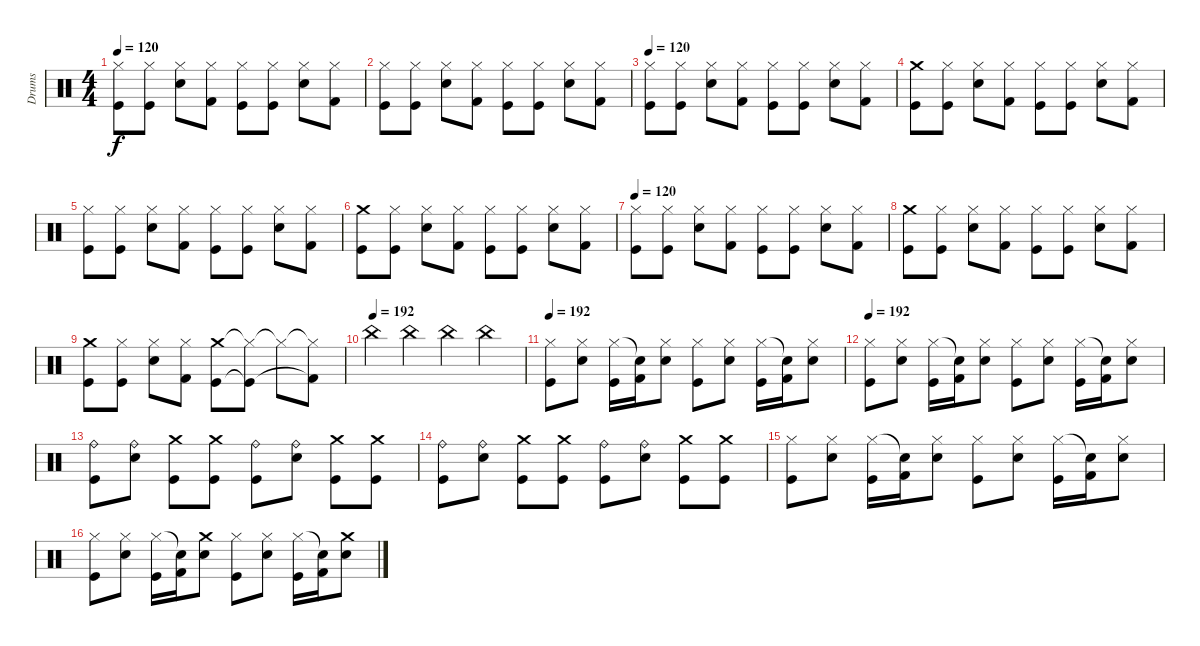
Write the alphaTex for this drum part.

\track ("Drums" "Drums") {instrument percussion}
\staff {score}
\articulation defaults
\ts (4 4)
\tempo 120
\clef neutral
\ks c
("Hi-Hat (closed)" "Kick (hit)").8{dy f} ("Hi-Hat (closed)" "Kick (hit)").8 ("Hi-Hat (closed)" "Electric Snare (hit)").8 ("Hi-Hat (closed)" "Kick (hit) 2").8 ("Hi-Hat (closed)" "Kick (hit)").8 ("Hi-Hat (closed)" "Kick (hit)").8 ("Hi-Hat (closed)" "Electric Snare (hit)").8 ("Hi-Hat (closed)" "Kick (hit) 2").8 |
("Hi-Hat (closed)" "Kick (hit)").8 ("Hi-Hat (closed)" "Kick (hit)").8 ("Hi-Hat (closed)" "Electric Snare (hit)").8 ("Hi-Hat (closed)" "Kick (hit) 2").8 ("Hi-Hat (closed)" "Kick (hit)").8 ("Hi-Hat (closed)" "Kick (hit)").8 ("Hi-Hat (closed)" "Electric Snare (hit)").8 ("Hi-Hat (closed)" "Kick (hit) 2").8 |
\tempo 120
("Hi-Hat (closed)" "Kick (hit)").8 ("Hi-Hat (closed)" "Kick (hit)").8 ("Hi-Hat (closed)" "Electric Snare (hit)").8 ("Hi-Hat (closed)" "Kick (hit) 2").8 ("Hi-Hat (closed)" "Kick (hit)").8 ("Hi-Hat (closed)" "Kick (hit)").8 ("Hi-Hat (closed)" "Electric Snare (hit)").8 ("Hi-Hat (closed)" "Kick (hit) 2").8 |
("Crash medium (hit)" "Kick (hit)").8 ("Hi-Hat (closed)" "Kick (hit)").8 ("Hi-Hat (closed)" "Electric Snare (hit)").8 ("Hi-Hat (closed)" "Kick (hit) 2").8 ("Hi-Hat (closed)" "Kick (hit)").8 ("Hi-Hat (closed)" "Kick (hit)").8 ("Hi-Hat (closed)" "Electric Snare (hit)").8 ("Hi-Hat (closed)" "Kick (hit) 2").8 |
("Hi-Hat (closed)" "Kick (hit)").8 ("Hi-Hat (closed)" "Kick (hit)").8 ("Hi-Hat (closed)" "Electric Snare (hit)").8 ("Hi-Hat (closed)" "Kick (hit) 2").8 ("Hi-Hat (closed)" "Kick (hit)").8 ("Hi-Hat (closed)" "Kick (hit)").8 ("Hi-Hat (closed)" "Electric Snare (hit)").8 ("Hi-Hat (closed)" "Kick (hit) 2").8 |
("Crash medium (hit)" "Kick (hit)").8 ("Hi-Hat (closed)" "Kick (hit)").8 ("Hi-Hat (closed)" "Electric Snare (hit)").8 ("Hi-Hat (closed)" "Kick (hit) 2").8 ("Hi-Hat (closed)" "Kick (hit)").8 ("Hi-Hat (closed)" "Kick (hit)").8 ("Hi-Hat (closed)" "Electric Snare (hit)").8 ("Hi-Hat (closed)" "Kick (hit) 2").8 |
\tempo 120
("Hi-Hat (closed)" "Kick (hit)").8 ("Hi-Hat (closed)" "Kick (hit)").8 ("Hi-Hat (closed)" "Electric Snare (hit)").8 ("Hi-Hat (closed)" "Kick (hit) 2").8 ("Hi-Hat (closed)" "Kick (hit)").8 ("Hi-Hat (closed)" "Kick (hit)").8 ("Hi-Hat (closed)" "Electric Snare (hit)").8 ("Hi-Hat (closed)" "Kick (hit) 2").8 |
("Crash medium (hit)" "Kick (hit)").8 ("Hi-Hat (closed)" "Kick (hit)").8 ("Hi-Hat (closed)" "Electric Snare (hit)").8 ("Hi-Hat (closed)" "Kick (hit) 2").8 ("Hi-Hat (closed)" "Kick (hit)").8 ("Hi-Hat (closed)" "Kick (hit)").8 ("Hi-Hat (closed)" "Electric Snare (hit)").8 ("Hi-Hat (closed)" "Kick (hit) 2").8 |
("Crash medium (hit)" "Kick (hit)").8 ("Hi-Hat (closed)" "Kick (hit)").8 ("Hi-Hat (closed)" "Electric Snare (hit)").8 ("Hi-Hat (closed)" "Kick (hit) 2").8 ("Crash medium (hit)" "Kick (hit)").8 ("Hi-Hat (closed)"{t} "Kick (hit)"{t}).8 "Hi-Hat (closed)"{t}.8 ("Hi-Hat (closed)"{t} "Kick (hit) 2"{t}).8 |
\tempo (192)
"China (hit)".4 "China (hit)".4 "China (hit)".4 "China (hit)".4 |
\section ("" "")
\tempo 192
("Hi-Hat (closed)" "Kick (hit)").8 ("Hi-Hat (closed)" "Electric Snare (hit)").8 ("Hi-Hat (closed)" "Kick (hit)").16 ("Snare (hit)"{t} "Kick (hit) 2").16 ("Hi-Hat (closed)" "Electric Snare (hit)").8 ("Hi-Hat (closed)" "Kick (hit)").8 ("Hi-Hat (closed)" "Electric Snare (hit)").8 ("Hi-Hat (closed)" "Kick (hit)").16 ("Snare (hit)"{t} "Kick (hit) 2").16 ("Hi-Hat (closed)" "Electric Snare (hit)").8 |
\tempo 192
("Hi-Hat (closed)" "Kick (hit)").8 ("Hi-Hat (closed)" "Electric Snare (hit)").8 ("Hi-Hat (closed)" "Kick (hit)").16 ("Snare (hit)"{t} "Kick (hit) 2").16 ("Hi-Hat (closed)" "Electric Snare (hit)").8 ("Hi-Hat (closed)" "Kick (hit)").8 ("Hi-Hat (closed)" "Electric Snare (hit)").8 ("Hi-Hat (closed)" "Kick (hit)").16 ("Snare (hit)"{t} "Kick (hit) 2").16 ("Hi-Hat (closed)" "Electric Snare (hit)").8 |
("Ride (bell)" "Kick (hit)").8 ("Ride (bell)" "Electric Snare (hit)").8 ("Crash medium (hit)" "Kick (hit)").8 ("Crash medium (hit)" "Kick (hit)").8 ("Ride (bell)" "Kick (hit)").8 ("Ride (bell)" "Electric Snare (hit)").8 ("Crash medium (hit)" "Kick (hit)").8 ("Crash medium (hit)" "Kick (hit)").8 |
("Ride (bell)" "Kick (hit)").8 ("Ride (bell)" "Electric Snare (hit)").8 ("Crash medium (hit)" "Kick (hit)").8 ("Crash medium (hit)" "Kick (hit)").8 ("Ride (bell)" "Kick (hit)").8 ("Ride (bell)" "Electric Snare (hit)").8 ("Crash medium (hit)" "Kick (hit)").8 ("Crash medium (hit)" "Kick (hit)").8 |
("Hi-Hat (closed)" "Kick (hit)").8 ("Hi-Hat (closed)" "Electric Snare (hit)").8 ("Hi-Hat (closed)" "Kick (hit)").16 ("Snare (hit)"{t} "Kick (hit) 2").16 ("Hi-Hat (closed)" "Electric Snare (hit)").8 ("Hi-Hat (closed)" "Kick (hit)").8 ("Hi-Hat (closed)" "Electric Snare (hit)").8 ("Hi-Hat (closed)" "Kick (hit)").16 ("Snare (hit)"{t} "Kick (hit) 2").16 ("Hi-Hat (closed)" "Electric Snare (hit)").8 |
("Hi-Hat (closed)" "Kick (hit)").8 ("Hi-Hat (closed)" "Electric Snare (hit)").8 ("Hi-Hat (closed)" "Kick (hit)").16 ("Snare (hit)"{t} "Kick (hit) 2").16 ("Crash medium (hit)" "Electric Snare (hit)").8 ("Hi-Hat (closed)" "Kick (hit)").8 ("Hi-Hat (closed)" "Electric Snare (hit)").8 ("Hi-Hat (closed)" "Kick (hit)").16 ("Snare (hit)"{t} "Kick (hit) 2").16 ("Crash medium (hit)" "Electric Snare (hit)").8
